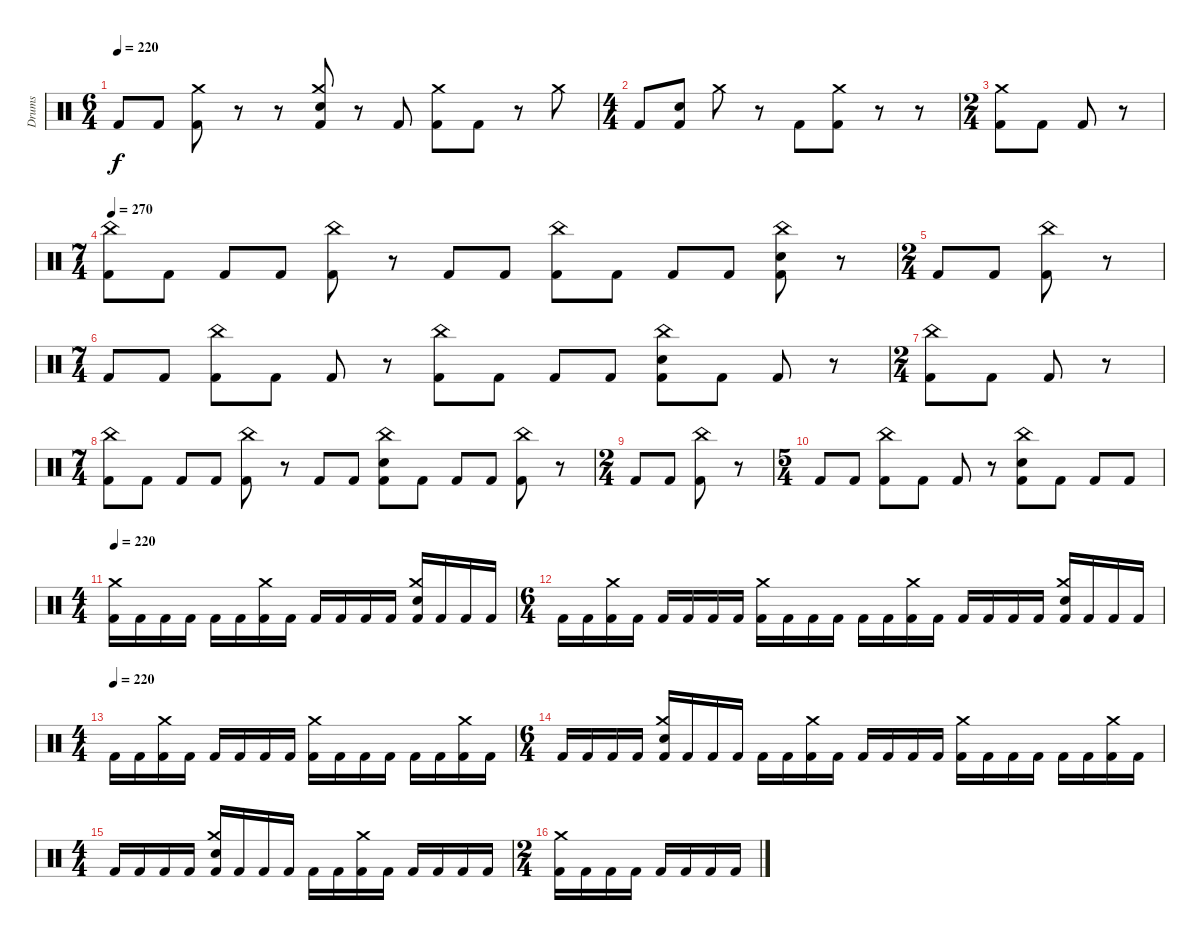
\track ("Drums" "Drums") {instrument percussion}
\staff {score}
\articulation defaults
\ts (6 4)
\tempo 220
\clef neutral
\ks c "Kick (hit) 2".8{dy f} "Kick (hit) 2".8
("Crash medium (hit)" "Kick (hit) 2").8 r.8 r.8 ("Crash medium (hit)" "Electric Snare (hit)" "Kick (hit) 2").8 r.8 "Kick (hit) 2".8 ("Crash medium (hit)" "Kick (hit) 2").8 "Kick (hit) 2".8 r.8 "Crash medium (hit)".8 |
\ts (4 4)
"Kick (hit) 2".8 ("Electric Snare (hit)" "Kick (hit) 2").8 "Crash medium (hit)".8 r.8 "Kick (hit) 2".8 ("Crash medium (hit)" "Kick (hit) 2").8 r.8 r.8 |
\ts (2 4)
("Crash medium (hit)" "Kick (hit) 2").8 "Kick (hit) 2".8 "Kick (hit) 2".8 r.8 |
\ts (7 4)
\tempo 270
("China (hit)" "Kick (hit) 2").8 "Kick (hit) 2".8 "Kick (hit) 2".8 "Kick (hit) 2".8 ("China (hit)" "Kick (hit) 2").8 r.8 "Kick (hit) 2".8 "Kick (hit) 2".8 ("China (hit)" "Kick (hit) 2").8 "Kick (hit) 2".8 "Kick (hit) 2".8 "Kick (hit) 2".8 ("China (hit)" "Electric Snare (hit)" "Kick (hit) 2").8 r.8 |
\ts (2 4)
"Kick (hit) 2".8 "Kick (hit) 2".8 ("China (hit)" "Kick (hit) 2").8 r.8 |
\ts (7 4)
"Kick (hit) 2".8 "Kick (hit) 2".8 ("China (hit)" "Kick (hit) 2").8 "Kick (hit) 2".8 "Kick (hit) 2".8 r.8 ("China (hit)" "Kick (hit) 2").8 "Kick (hit) 2".8 "Kick (hit) 2".8 "Kick (hit) 2".8 ("China (hit)" "Electric Snare (hit)" "Kick (hit) 2").8 "Kick (hit) 2".8 "Kick (hit) 2".8 r.8 |
\ts (2 4)
("China (hit)" "Kick (hit) 2").8 "Kick (hit) 2".8 "Kick (hit) 2".8 r.8 |
\ts (7 4)
("China (hit)" "Kick (hit) 2").8 "Kick (hit) 2".8 "Kick (hit) 2".8 "Kick (hit) 2".8 ("China (hit)" "Kick (hit) 2").8 r.8 "Kick (hit) 2".8 "Kick (hit) 2".8 ("China (hit)" "Electric Snare (hit)" "Kick (hit) 2").8 "Kick (hit) 2".8 "Kick (hit) 2".8 "Kick (hit) 2".8 ("China (hit)" "Kick (hit) 2").8 r.8 |
\ts (2 4)
"Kick (hit) 2".8 "Kick (hit) 2".8 ("China (hit)" "Kick (hit) 2").8 r.8 |
\ts (5 4)
"Kick (hit) 2".8 "Kick (hit) 2".8 ("China (hit)" "Kick (hit) 2").8 "Kick (hit) 2".8 "Kick (hit) 2".8 r.8 ("China (hit)" "Electric Snare (hit)" "Kick (hit) 2").8 "Kick (hit) 2".8 "Kick (hit) 2".8 "Kick (hit) 2".8 |
\ts (4 4)
\tempo 220
("Crash medium (hit)" "Kick (hit) 2").16 "Kick (hit) 2".16 "Kick (hit) 2".16 "Kick (hit) 2".16 "Kick (hit) 2".16 "Kick (hit) 2".16 ("Crash medium (hit)" "Kick (hit) 2").16 "Kick (hit) 2".16 "Kick (hit) 2".16 "Kick (hit) 2".16 "Kick (hit) 2".16 "Kick (hit) 2".16 ("Crash medium (hit)" "Electric Snare (hit)" "Kick (hit) 2").16 "Kick (hit) 2".16 "Kick (hit) 2".16 "Kick (hit) 2".16 |
\ts (6 4)
"Kick (hit) 2".16 "Kick (hit) 2".16 ("Crash medium (hit)" "Kick (hit) 2").16 "Kick (hit) 2".16 "Kick (hit) 2".16 "Kick (hit) 2".16 "Kick (hit) 2".16 "Kick (hit) 2".16 ("Crash medium (hit)" "Kick (hit) 2").16 "Kick (hit) 2".16 "Kick (hit) 2".16 "Kick (hit) 2".16 "Kick (hit) 2".16 "Kick (hit) 2".16 ("Crash medium (hit)" "Kick (hit) 2").16 "Kick (hit) 2".16 "Kick (hit) 2".16 "Kick (hit) 2".16 "Kick (hit) 2".16 "Kick (hit) 2".16 ("Crash medium (hit)" "Electric Snare (hit)" "Kick (hit) 2").16 "Kick (hit) 2".16 "Kick (hit) 2".16 "Kick (hit) 2".16 |
\ts (4 4)
\tempo (220)
"Kick (hit) 2".16 "Kick (hit) 2".16 ("Crash medium (hit)" "Kick (hit) 2").16 "Kick (hit) 2".16 "Kick (hit) 2".16 "Kick (hit) 2".16 "Kick (hit) 2".16 "Kick (hit) 2".16 ("Crash medium (hit)" "Kick (hit) 2").16 "Kick (hit) 2".16 "Kick (hit) 2".16 "Kick (hit) 2".16 "Kick (hit) 2".16 "Kick (hit) 2".16 ("Crash medium (hit)" "Kick (hit) 2").16 "Kick (hit) 2".16 |
\ts (6 4)
"Kick (hit) 2".16 "Kick (hit) 2".16 "Kick (hit) 2".16 "Kick (hit) 2".16 ("Crash medium (hit)" "Electric Snare (hit)" "Kick (hit) 2").16 "Kick (hit) 2".16 "Kick (hit) 2".16 "Kick (hit) 2".16 "Kick (hit) 2".16 "Kick (hit) 2".16 ("Crash medium (hit)" "Kick (hit) 2").16 "Kick (hit) 2".16 "Kick (hit) 2".16 "Kick (hit) 2".16 "Kick (hit) 2".16 "Kick (hit) 2".16 ("Crash medium (hit)" "Kick (hit) 2").16 "Kick (hit) 2".16 "Kick (hit) 2".16 "Kick (hit) 2".16 "Kick (hit) 2".16 "Kick (hit) 2".16 ("Crash medium (hit)" "Kick (hit) 2").16 "Kick (hit) 2".16 |
\ts (4 4)
"Kick (hit) 2".16 "Kick (hit) 2".16 "Kick (hit) 2".16 "Kick (hit) 2".16 ("Crash medium (hit)" "Electric Snare (hit)" "Kick (hit) 2").16 "Kick (hit) 2".16 "Kick (hit) 2".16 "Kick (hit) 2".16 "Kick (hit) 2".16 "Kick (hit) 2".16 ("Crash medium (hit)" "Kick (hit) 2").16 "Kick (hit) 2".16 "Kick (hit) 2".16 "Kick (hit) 2".16 "Kick (hit) 2".16 "Kick (hit) 2".16 |
\ts (2 4)
("Crash medium (hit)" "Kick (hit) 2").16 "Kick (hit) 2".16 "Kick (hit) 2".16 "Kick (hit) 2".16 "Kick (hit) 2".16 "Kick (hit) 2".16 "Kick (hit) 2".16 "Kick (hit) 2".16
